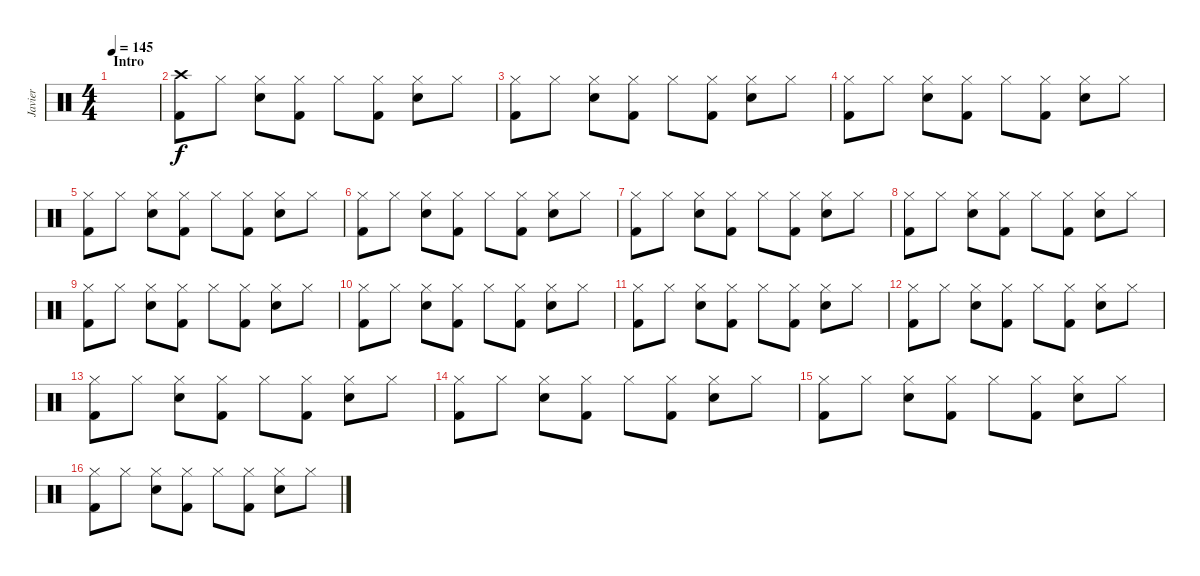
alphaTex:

\track ("Javier" "Javier") {instrument percussion}
\staff {score}
\articulation defaults
\ts (4 4)
\section ("" "Intro")
\tempo 145
\clef neutral
\ks c
|
("Crash high (hit)" "Kick (hit) 2").8 "Hi-Hat (closed)".8 ("Hi-Hat (closed)" "Snare (hit) 2").8 ("Hi-Hat (closed)" "Kick (hit) 2").8 "Hi-Hat (closed)".8 ("Hi-Hat (closed)" "Kick (hit) 2").8 ("Hi-Hat (closed)" "Snare (hit) 2").8 "Hi-Hat (closed)".8 |
("Hi-Hat (closed)" "Kick (hit) 2").8 "Hi-Hat (closed)".8 ("Hi-Hat (closed)" "Snare (hit) 2").8 ("Hi-Hat (closed)" "Kick (hit) 2").8 "Hi-Hat (closed)".8 ("Hi-Hat (closed)" "Kick (hit) 2").8 ("Hi-Hat (closed)" "Snare (hit) 2").8 "Hi-Hat (closed)".8 |
("Hi-Hat (closed)" "Kick (hit) 2").8 "Hi-Hat (closed)".8 ("Hi-Hat (closed)" "Snare (hit) 2").8 ("Hi-Hat (closed)" "Kick (hit) 2").8 "Hi-Hat (closed)".8 ("Hi-Hat (closed)" "Kick (hit) 2").8 ("Hi-Hat (closed)" "Snare (hit) 2").8 "Hi-Hat (closed)".8 |
("Hi-Hat (closed)" "Kick (hit) 2").8 "Hi-Hat (closed)".8 ("Hi-Hat (closed)" "Snare (hit) 2").8 ("Hi-Hat (closed)" "Kick (hit) 2").8 "Hi-Hat (closed)".8 ("Hi-Hat (closed)" "Kick (hit) 2").8 ("Hi-Hat (closed)" "Snare (hit) 2").8 "Hi-Hat (closed)".8 |
("Hi-Hat (closed)" "Kick (hit) 2").8 "Hi-Hat (closed)".8 ("Hi-Hat (closed)" "Snare (hit) 2").8 ("Hi-Hat (closed)" "Kick (hit) 2").8 "Hi-Hat (closed)".8 ("Hi-Hat (closed)" "Kick (hit) 2").8 ("Hi-Hat (closed)" "Snare (hit) 2").8 "Hi-Hat (closed)".8 |
("Hi-Hat (closed)" "Kick (hit) 2").8 "Hi-Hat (closed)".8 ("Hi-Hat (closed)" "Snare (hit) 2").8 ("Hi-Hat (closed)" "Kick (hit) 2").8 "Hi-Hat (closed)".8 ("Hi-Hat (closed)" "Kick (hit) 2").8 ("Hi-Hat (closed)" "Snare (hit) 2").8 "Hi-Hat (closed)".8 |
("Hi-Hat (closed)" "Kick (hit) 2").8 "Hi-Hat (closed)".8 ("Hi-Hat (closed)" "Snare (hit) 2").8 ("Hi-Hat (closed)" "Kick (hit) 2").8 "Hi-Hat (closed)".8 ("Hi-Hat (closed)" "Kick (hit) 2").8 ("Hi-Hat (closed)" "Snare (hit) 2").8 "Hi-Hat (closed)".8 |
("Hi-Hat (closed)" "Kick (hit) 2").8 "Hi-Hat (closed)".8 ("Hi-Hat (closed)" "Snare (hit) 2").8 ("Hi-Hat (closed)" "Kick (hit) 2").8 "Hi-Hat (closed)".8 ("Hi-Hat (closed)" "Kick (hit) 2").8 ("Hi-Hat (closed)" "Snare (hit) 2").8 "Hi-Hat (closed)".8 |
("Hi-Hat (closed)" "Kick (hit) 2").8 "Hi-Hat (closed)".8 ("Hi-Hat (closed)" "Snare (hit) 2").8 ("Hi-Hat (closed)" "Kick (hit) 2").8 "Hi-Hat (closed)".8 ("Hi-Hat (closed)" "Kick (hit) 2").8 ("Hi-Hat (closed)" "Snare (hit) 2").8 "Hi-Hat (closed)".8 |
("Hi-Hat (closed)" "Kick (hit) 2").8 "Hi-Hat (closed)".8 ("Hi-Hat (closed)" "Snare (hit) 2").8 ("Hi-Hat (closed)" "Kick (hit) 2").8 "Hi-Hat (closed)".8 ("Hi-Hat (closed)" "Kick (hit) 2").8 ("Hi-Hat (closed)" "Snare (hit) 2").8 "Hi-Hat (closed)".8 |
("Hi-Hat (closed)" "Kick (hit) 2").8 "Hi-Hat (closed)".8 ("Hi-Hat (closed)" "Snare (hit) 2").8 ("Hi-Hat (closed)" "Kick (hit) 2").8 "Hi-Hat (closed)".8 ("Hi-Hat (closed)" "Kick (hit) 2").8 ("Hi-Hat (closed)" "Snare (hit) 2").8 "Hi-Hat (closed)".8 |
("Hi-Hat (closed)" "Kick (hit) 2").8 "Hi-Hat (closed)".8 ("Hi-Hat (closed)" "Snare (hit) 2").8 ("Hi-Hat (closed)" "Kick (hit) 2").8 "Hi-Hat (closed)".8 ("Hi-Hat (closed)" "Kick (hit) 2").8 ("Hi-Hat (closed)" "Snare (hit) 2").8 "Hi-Hat (closed)".8 |
("Hi-Hat (closed)" "Kick (hit) 2").8 "Hi-Hat (closed)".8 ("Hi-Hat (closed)" "Snare (hit) 2").8 ("Hi-Hat (closed)" "Kick (hit) 2").8 "Hi-Hat (closed)".8 ("Hi-Hat (closed)" "Kick (hit) 2").8 ("Hi-Hat (closed)" "Snare (hit) 2").8 "Hi-Hat (closed)".8 |
("Hi-Hat (closed)" "Kick (hit) 2").8 "Hi-Hat (closed)".8 ("Hi-Hat (closed)" "Snare (hit) 2").8 ("Hi-Hat (closed)" "Kick (hit) 2").8 "Hi-Hat (closed)".8 ("Hi-Hat (closed)" "Kick (hit) 2").8 ("Hi-Hat (closed)" "Snare (hit) 2").8 "Hi-Hat (closed)".8 |
("Hi-Hat (closed)" "Kick (hit) 2").8 "Hi-Hat (closed)".8 ("Hi-Hat (closed)" "Snare (hit) 2").8 ("Hi-Hat (closed)" "Kick (hit) 2").8 "Hi-Hat (closed)".8 ("Hi-Hat (closed)" "Kick (hit) 2").8 ("Hi-Hat (closed)" "Snare (hit) 2").8 "Hi-Hat (closed)".8
